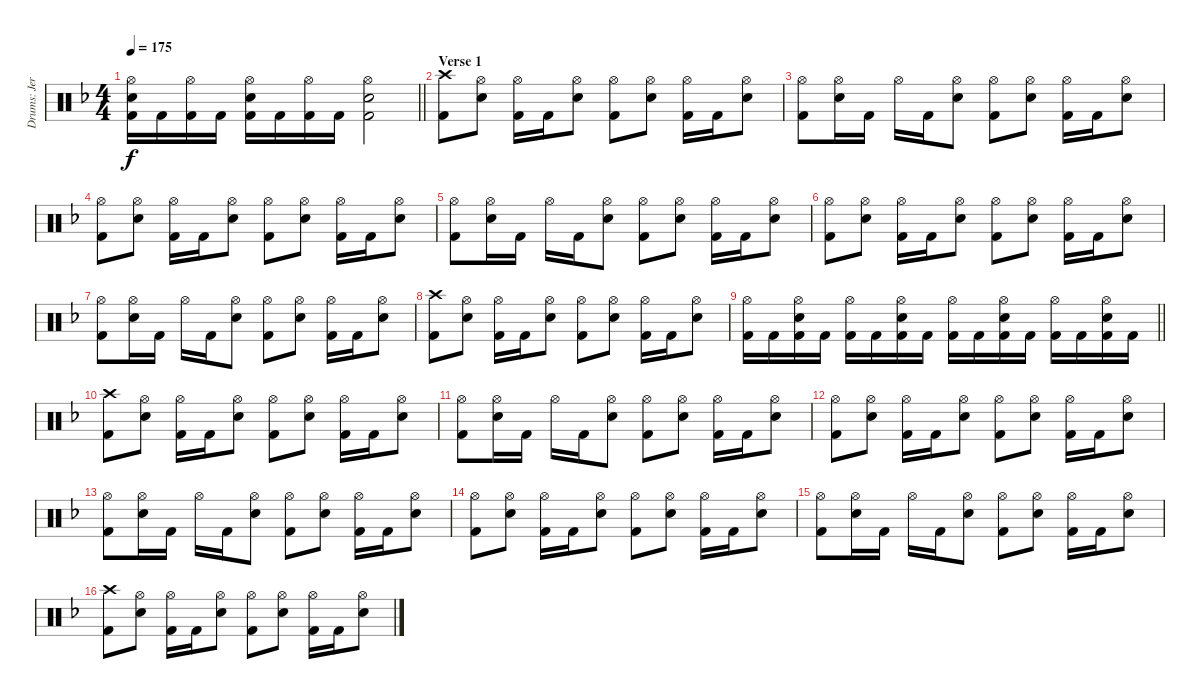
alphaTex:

\track ("Drums: Jere Luokkamäki" "Drums: Jer") {instrument percussion}
\staff {score}
\articulation defaults
\ts (4 4)
\tempo 175
\clef neutral
\barLineRight lightlight
\ks dminor
("Hi-Hat (open)" "Electric Snare (hit)" "Kick (hit) 2").16{dy f} "Kick (hit) 2".16 ("Hi-Hat (open)" "Kick (hit) 2").16 "Kick (hit) 2".16 ("Hi-Hat (open)" "Electric Snare (hit)" "Kick (hit) 2").16 "Kick (hit) 2".16 ("Hi-Hat (open)" "Kick (hit) 2").16 "Kick (hit) 2".16 ("Hi-Hat (open)" "Electric Snare (hit)" "Kick (hit) 2").2 |
\section ("" "Verse 1")
("Crash high (hit)" "Kick (hit) 2").8 ("Hi-Hat (open)" "Electric Snare (hit)").8 ("Hi-Hat (open)" "Kick (hit) 2").16 "Kick (hit) 2".16 ("Hi-Hat (open)" "Electric Snare (hit)").8 ("Hi-Hat (open)" "Kick (hit) 2").8 ("Hi-Hat (open)" "Electric Snare (hit)").8 ("Hi-Hat (open)" "Kick (hit) 2").16 "Kick (hit) 2".16 ("Hi-Hat (open)" "Electric Snare (hit)").8 |
("Hi-Hat (open)" "Kick (hit) 2").8 ("Hi-Hat (open)" "Electric Snare (hit)").16 "Kick (hit) 2".16 "Hi-Hat (open)".16 "Kick (hit) 2".16 ("Hi-Hat (open)" "Electric Snare (hit)").8 ("Hi-Hat (open)" "Kick (hit) 2").8 ("Hi-Hat (open)" "Electric Snare (hit)").8 ("Hi-Hat (open)" "Kick (hit) 2").16 "Kick (hit) 2".16 ("Hi-Hat (open)" "Electric Snare (hit)").8 |
("Hi-Hat (open)" "Kick (hit) 2").8 ("Hi-Hat (open)" "Electric Snare (hit)").8 ("Hi-Hat (open)" "Kick (hit) 2").16 "Kick (hit) 2".16 ("Hi-Hat (open)" "Electric Snare (hit)").8 ("Hi-Hat (open)" "Kick (hit) 2").8 ("Hi-Hat (open)" "Electric Snare (hit)").8 ("Hi-Hat (open)" "Kick (hit) 2").16 "Kick (hit) 2".16 ("Hi-Hat (open)" "Electric Snare (hit)").8 |
("Hi-Hat (open)" "Kick (hit) 2").8 ("Hi-Hat (open)" "Electric Snare (hit)").16 "Kick (hit) 2".16 "Hi-Hat (open)".16 "Kick (hit) 2".16 ("Hi-Hat (open)" "Electric Snare (hit)").8 ("Hi-Hat (open)" "Kick (hit) 2").8 ("Hi-Hat (open)" "Electric Snare (hit)").8 ("Hi-Hat (open)" "Kick (hit) 2").16 "Kick (hit) 2".16 ("Hi-Hat (open)" "Electric Snare (hit)").8 |
("Hi-Hat (open)" "Kick (hit) 2").8 ("Hi-Hat (open)" "Electric Snare (hit)").8 ("Hi-Hat (open)" "Kick (hit) 2").16 "Kick (hit) 2".16 ("Hi-Hat (open)" "Electric Snare (hit)").8 ("Hi-Hat (open)" "Kick (hit) 2").8 ("Hi-Hat (open)" "Electric Snare (hit)").8 ("Hi-Hat (open)" "Kick (hit) 2").16 "Kick (hit) 2".16 ("Hi-Hat (open)" "Electric Snare (hit)").8 |
("Hi-Hat (open)" "Kick (hit) 2").8 ("Hi-Hat (open)" "Electric Snare (hit)").16 "Kick (hit) 2".16 "Hi-Hat (open)".16 "Kick (hit) 2".16 ("Hi-Hat (open)" "Electric Snare (hit)").8 ("Hi-Hat (open)" "Kick (hit) 2").8 ("Hi-Hat (open)" "Electric Snare (hit)").8 ("Hi-Hat (open)" "Kick (hit) 2").16 "Kick (hit) 2".16 ("Hi-Hat (open)" "Electric Snare (hit)").8 |
("Crash high (hit)" "Kick (hit) 2").8 ("Hi-Hat (open)" "Electric Snare (hit)").8 ("Hi-Hat (open)" "Kick (hit) 2").16 "Kick (hit) 2".16 ("Hi-Hat (open)" "Electric Snare (hit)").8 ("Hi-Hat (open)" "Kick (hit) 2").8 ("Hi-Hat (open)" "Electric Snare (hit)").8 ("Hi-Hat (open)" "Kick (hit) 2").16 "Kick (hit) 2".16 ("Hi-Hat (open)" "Electric Snare (hit)").8 |
\barLineRight lightlight
("Hi-Hat (open)" "Kick (hit) 2").16 "Kick (hit) 2".16 ("Hi-Hat (open)" "Electric Snare (hit)" "Kick (hit) 2").16 "Kick (hit) 2".16 ("Hi-Hat (open)" "Kick (hit) 2").16 "Kick (hit) 2".16 ("Hi-Hat (open)" "Electric Snare (hit)" "Kick (hit) 2").16 "Kick (hit) 2".16 ("Hi-Hat (open)" "Kick (hit) 2").16 "Kick (hit) 2".16 ("Hi-Hat (open)" "Electric Snare (hit)" "Kick (hit) 2").16 "Kick (hit) 2".16 ("Hi-Hat (open)" "Kick (hit) 2").16 "Kick (hit) 2".16 ("Hi-Hat (open)" "Electric Snare (hit)" "Kick (hit) 2").16 "Kick (hit) 2".16 |
("Crash high (hit)" "Kick (hit) 2").8 ("Hi-Hat (open)" "Electric Snare (hit)").8 ("Hi-Hat (open)" "Kick (hit) 2").16 "Kick (hit) 2".16 ("Hi-Hat (open)" "Electric Snare (hit)").8 ("Hi-Hat (open)" "Kick (hit) 2").8 ("Hi-Hat (open)" "Electric Snare (hit)").8 ("Hi-Hat (open)" "Kick (hit) 2").16 "Kick (hit) 2".16 ("Hi-Hat (open)" "Electric Snare (hit)").8 |
("Hi-Hat (open)" "Kick (hit) 2").8 ("Hi-Hat (open)" "Electric Snare (hit)").16 "Kick (hit) 2".16 "Hi-Hat (open)".16 "Kick (hit) 2".16 ("Hi-Hat (open)" "Electric Snare (hit)").8 ("Hi-Hat (open)" "Kick (hit) 2").8 ("Hi-Hat (open)" "Electric Snare (hit)").8 ("Hi-Hat (open)" "Kick (hit) 2").16 "Kick (hit) 2".16 ("Hi-Hat (open)" "Electric Snare (hit)").8 |
("Hi-Hat (open)" "Kick (hit) 2").8 ("Hi-Hat (open)" "Electric Snare (hit)").8 ("Hi-Hat (open)" "Kick (hit) 2").16 "Kick (hit) 2".16 ("Hi-Hat (open)" "Electric Snare (hit)").8 ("Hi-Hat (open)" "Kick (hit) 2").8 ("Hi-Hat (open)" "Electric Snare (hit)").8 ("Hi-Hat (open)" "Kick (hit) 2").16 "Kick (hit) 2".16 ("Hi-Hat (open)" "Electric Snare (hit)").8 |
("Hi-Hat (open)" "Kick (hit) 2").8 ("Hi-Hat (open)" "Electric Snare (hit)").16 "Kick (hit) 2".16 "Hi-Hat (open)".16 "Kick (hit) 2".16 ("Hi-Hat (open)" "Electric Snare (hit)").8 ("Hi-Hat (open)" "Kick (hit) 2").8 ("Hi-Hat (open)" "Electric Snare (hit)").8 ("Hi-Hat (open)" "Kick (hit) 2").16 "Kick (hit) 2".16 ("Hi-Hat (open)" "Electric Snare (hit)").8 |
("Hi-Hat (open)" "Kick (hit) 2").8 ("Hi-Hat (open)" "Electric Snare (hit)").8 ("Hi-Hat (open)" "Kick (hit) 2").16 "Kick (hit) 2".16 ("Hi-Hat (open)" "Electric Snare (hit)").8 ("Hi-Hat (open)" "Kick (hit) 2").8 ("Hi-Hat (open)" "Electric Snare (hit)").8 ("Hi-Hat (open)" "Kick (hit) 2").16 "Kick (hit) 2".16 ("Hi-Hat (open)" "Electric Snare (hit)").8 |
("Hi-Hat (open)" "Kick (hit) 2").8 ("Hi-Hat (open)" "Electric Snare (hit)").16 "Kick (hit) 2".16 "Hi-Hat (open)".16 "Kick (hit) 2".16 ("Hi-Hat (open)" "Electric Snare (hit)").8 ("Hi-Hat (open)" "Kick (hit) 2").8 ("Hi-Hat (open)" "Electric Snare (hit)").8 ("Hi-Hat (open)" "Kick (hit) 2").16 "Kick (hit) 2".16 ("Hi-Hat (open)" "Electric Snare (hit)").8 |
("Crash high (hit)" "Kick (hit) 2").8 ("Hi-Hat (open)" "Electric Snare (hit)").8 ("Hi-Hat (open)" "Kick (hit) 2").16 "Kick (hit) 2".16 ("Hi-Hat (open)" "Electric Snare (hit)").8 ("Hi-Hat (open)" "Kick (hit) 2").8 ("Hi-Hat (open)" "Electric Snare (hit)").8 ("Hi-Hat (open)" "Kick (hit) 2").16 "Kick (hit) 2".16 ("Hi-Hat (open)" "Electric Snare (hit)").8
